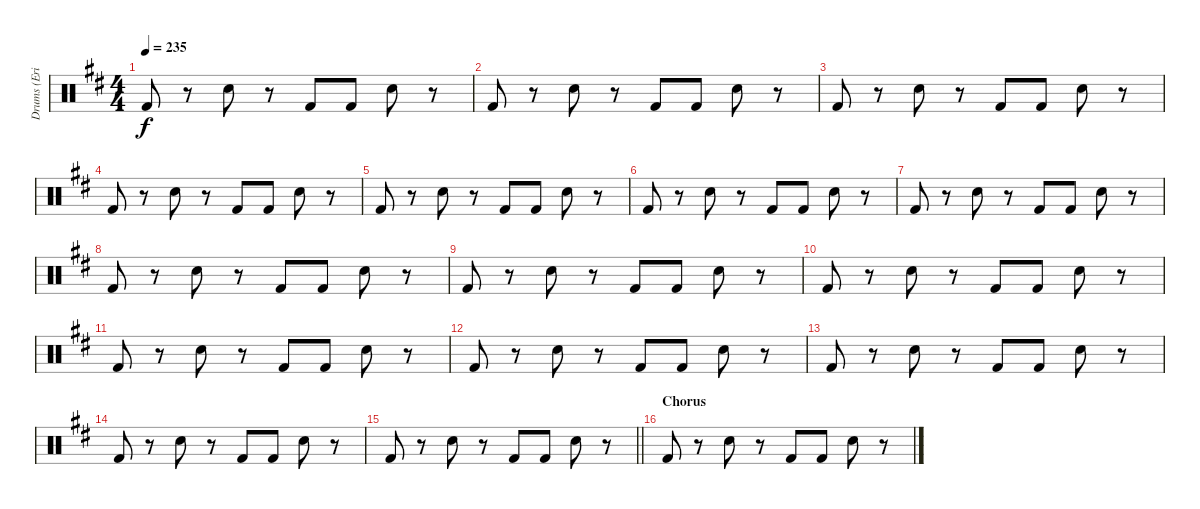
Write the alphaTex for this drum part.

\track ("Drums (Eric Carr)" "Drums (Eri") {instrument percussion}
\staff {score}
\articulation defaults
\ts (4 4)
\tempo 235
\clef neutral
\ks d "Kick (hit) 2".8{dy f}
r.8 "Snare (hit) 2".8 r.8 "Kick (hit) 2".8 "Kick (hit) 2".8 "Snare (hit) 2".8 r.8 |
"Kick (hit) 2".8 r.8 "Snare (hit) 2".8 r.8 "Kick (hit) 2".8 "Kick (hit) 2".8 "Snare (hit) 2".8 r.8 |
"Kick (hit) 2".8 r.8 "Snare (hit) 2".8 r.8 "Kick (hit) 2".8 "Kick (hit) 2".8 "Snare (hit) 2".8 r.8 |
"Kick (hit) 2".8 r.8 "Snare (hit) 2".8 r.8 "Kick (hit) 2".8 "Kick (hit) 2".8 "Snare (hit) 2".8 r.8 |
"Kick (hit) 2".8 r.8 "Snare (hit) 2".8 r.8 "Kick (hit) 2".8 "Kick (hit) 2".8 "Snare (hit) 2".8 r.8 |
"Kick (hit) 2".8 r.8 "Snare (hit) 2".8 r.8 "Kick (hit) 2".8 "Kick (hit) 2".8 "Snare (hit) 2".8 r.8 |
"Kick (hit) 2".8 r.8 "Snare (hit) 2".8 r.8 "Kick (hit) 2".8 "Kick (hit) 2".8 "Snare (hit) 2".8 r.8 |
"Kick (hit) 2".8 r.8 "Snare (hit) 2".8 r.8 "Kick (hit) 2".8 "Kick (hit) 2".8 "Snare (hit) 2".8 r.8 |
"Kick (hit) 2".8 r.8 "Snare (hit) 2".8 r.8 "Kick (hit) 2".8 "Kick (hit) 2".8 "Snare (hit) 2".8 r.8 |
"Kick (hit) 2".8 r.8 "Snare (hit) 2".8 r.8 "Kick (hit) 2".8 "Kick (hit) 2".8 "Snare (hit) 2".8 r.8 |
"Kick (hit) 2".8 r.8 "Snare (hit) 2".8 r.8 "Kick (hit) 2".8 "Kick (hit) 2".8 "Snare (hit) 2".8 r.8 |
"Kick (hit) 2".8 r.8 "Snare (hit) 2".8 r.8 "Kick (hit) 2".8 "Kick (hit) 2".8 "Snare (hit) 2".8 r.8 |
"Kick (hit) 2".8 r.8 "Snare (hit) 2".8 r.8 "Kick (hit) 2".8 "Kick (hit) 2".8 "Snare (hit) 2".8 r.8 |
"Kick (hit) 2".8 r.8 "Snare (hit) 2".8 r.8 "Kick (hit) 2".8 "Kick (hit) 2".8 "Snare (hit) 2".8 r.8 |
\barLineRight lightlight "Kick (hit) 2".8
r.8 "Snare (hit) 2".8 r.8 "Kick (hit) 2".8 "Kick (hit) 2".8 "Snare (hit) 2".8 r.8 |
\section ("" "Chorus")
"Kick (hit) 2".8 r.8 "Snare (hit) 2".8 r.8 "Kick (hit) 2".8 "Kick (hit) 2".8 "Snare (hit) 2".8 r.8
